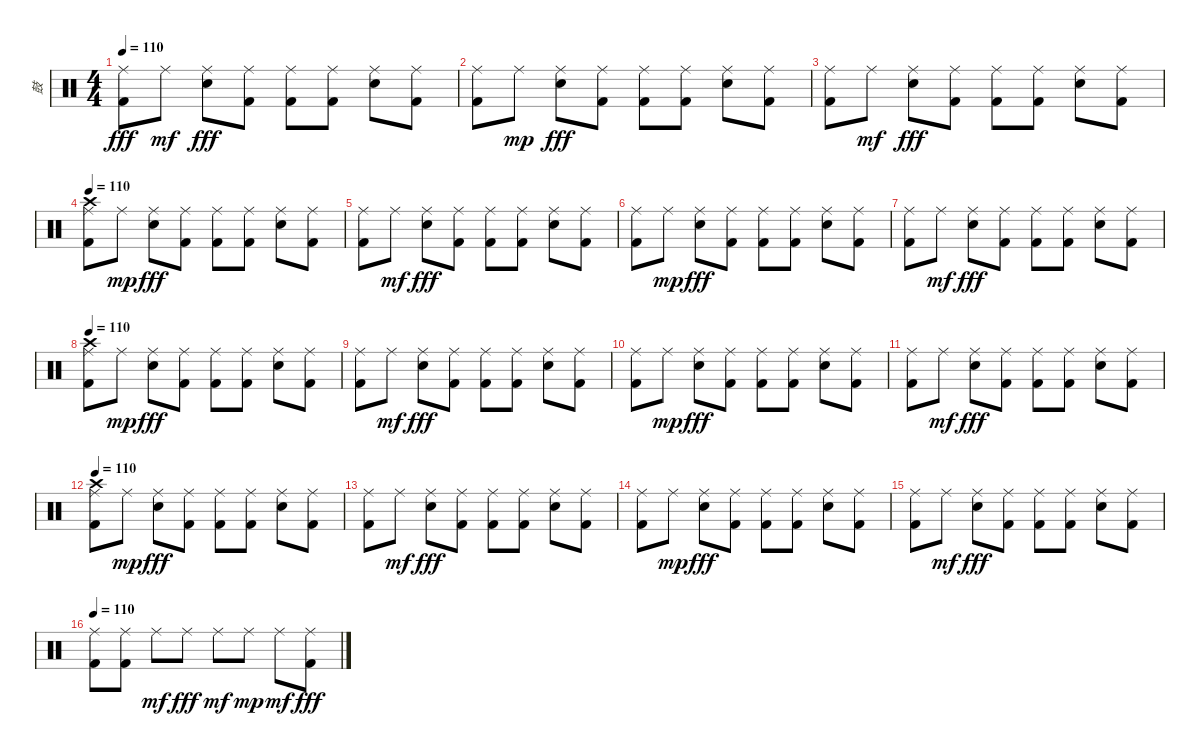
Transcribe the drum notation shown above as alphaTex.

\track ("鼓" "鼓") {instrument percussion}
\staff {score}
\articulation defaults
\ts (4 4)
\tempo 110
\clef neutral
\ks c
("Ride (middle)" "Kick (hit) 2").8{dy fff} "Ride (middle)".8{dy mf} ("Ride (middle)" "Electric Snare (hit)").8{dy fff} ("Ride (middle)" "Kick (hit) 2").8 ("Ride (middle)" "Kick (hit) 2").8 ("Ride (middle)" "Kick (hit) 2").8 ("Ride (middle)" "Electric Snare (hit)").8 ("Ride (middle)" "Kick (hit) 2").8 |
("Ride (middle)" "Kick (hit) 2").8 "Ride (middle)".8{dy mp} ("Ride (middle)" "Electric Snare (hit)").8{dy fff} ("Ride (middle)" "Kick (hit) 2").8 ("Ride (middle)" "Kick (hit) 2").8 ("Ride (middle)" "Kick (hit) 2").8 ("Ride (middle)" "Electric Snare (hit)").8 ("Ride (middle)" "Kick (hit) 2").8 |
("Ride (middle)" "Kick (hit) 2").8 "Ride (middle)".8{dy mf} ("Ride (middle)" "Electric Snare (hit)").8{dy fff} ("Ride (middle)" "Kick (hit) 2").8 ("Ride (middle)" "Kick (hit) 2").8 ("Ride (middle)" "Kick (hit) 2").8 ("Ride (middle)" "Electric Snare (hit)").8 ("Ride (middle)" "Kick (hit) 2").8 |
\tempo 110
("Ride (middle)" "Crash high (hit)" "Kick (hit) 2").8 "Ride (middle)".8{dy mp} ("Ride (middle)" "Electric Snare (hit)").8{dy fff} ("Ride (middle)" "Kick (hit) 2").8 ("Ride (middle)" "Kick (hit) 2").8 ("Ride (middle)" "Kick (hit) 2").8 ("Ride (middle)" "Electric Snare (hit)").8 ("Ride (middle)" "Kick (hit) 2").8 |
("Ride (middle)" "Kick (hit) 2").8 "Ride (middle)".8{dy mf} ("Ride (middle)" "Electric Snare (hit)").8{dy fff} ("Ride (middle)" "Kick (hit) 2").8 ("Ride (middle)" "Kick (hit) 2").8 ("Ride (middle)" "Kick (hit) 2").8 ("Ride (middle)" "Electric Snare (hit)").8 ("Ride (middle)" "Kick (hit) 2").8 |
("Ride (middle)" "Kick (hit) 2").8 "Ride (middle)".8{dy mp} ("Ride (middle)" "Electric Snare (hit)").8{dy fff} ("Ride (middle)" "Kick (hit) 2").8 ("Ride (middle)" "Kick (hit) 2").8 ("Ride (middle)" "Kick (hit) 2").8 ("Ride (middle)" "Electric Snare (hit)").8 ("Ride (middle)" "Kick (hit) 2").8 |
("Ride (middle)" "Kick (hit) 2").8 "Ride (middle)".8{dy mf} ("Ride (middle)" "Electric Snare (hit)").8{dy fff} ("Ride (middle)" "Kick (hit) 2").8 ("Ride (middle)" "Kick (hit) 2").8 ("Ride (middle)" "Kick (hit) 2").8 ("Ride (middle)" "Electric Snare (hit)").8 ("Ride (middle)" "Kick (hit) 2").8 |
\tempo 110
("Ride (middle)" "Crash high (hit)" "Kick (hit) 2").8 "Ride (middle)".8{dy mp} ("Ride (middle)" "Electric Snare (hit)").8{dy fff} ("Ride (middle)" "Kick (hit) 2").8 ("Ride (middle)" "Kick (hit) 2").8 ("Ride (middle)" "Kick (hit) 2").8 ("Ride (middle)" "Electric Snare (hit)").8 ("Ride (middle)" "Kick (hit) 2").8 |
("Ride (middle)" "Kick (hit) 2").8 "Ride (middle)".8{dy mf} ("Ride (middle)" "Electric Snare (hit)").8{dy fff} ("Ride (middle)" "Kick (hit) 2").8 ("Ride (middle)" "Kick (hit) 2").8 ("Ride (middle)" "Kick (hit) 2").8 ("Ride (middle)" "Electric Snare (hit)").8 ("Ride (middle)" "Kick (hit) 2").8 |
("Ride (middle)" "Kick (hit) 2").8 "Ride (middle)".8{dy mp} ("Ride (middle)" "Electric Snare (hit)").8{dy fff} ("Ride (middle)" "Kick (hit) 2").8 ("Ride (middle)" "Kick (hit) 2").8 ("Ride (middle)" "Kick (hit) 2").8 ("Ride (middle)" "Electric Snare (hit)").8 ("Ride (middle)" "Kick (hit) 2").8 |
("Ride (middle)" "Kick (hit) 2").8 "Ride (middle)".8{dy mf} ("Ride (middle)" "Electric Snare (hit)").8{dy fff} ("Ride (middle)" "Kick (hit) 2").8 ("Ride (middle)" "Kick (hit) 2").8 ("Ride (middle)" "Kick (hit) 2").8 ("Ride (middle)" "Electric Snare (hit)").8 ("Ride (middle)" "Kick (hit) 2").8 |
\tempo 110
("Ride (middle)" "Crash high (hit)" "Kick (hit) 2").8 "Ride (middle)".8{dy mp} ("Ride (middle)" "Electric Snare (hit)").8{dy fff} ("Ride (middle)" "Kick (hit) 2").8 ("Ride (middle)" "Kick (hit) 2").8 ("Ride (middle)" "Kick (hit) 2").8 ("Ride (middle)" "Electric Snare (hit)").8 ("Ride (middle)" "Kick (hit) 2").8 |
("Ride (middle)" "Kick (hit) 2").8 "Ride (middle)".8{dy mf} ("Ride (middle)" "Electric Snare (hit)").8{dy fff} ("Ride (middle)" "Kick (hit) 2").8 ("Ride (middle)" "Kick (hit) 2").8 ("Ride (middle)" "Kick (hit) 2").8 ("Ride (middle)" "Electric Snare (hit)").8 ("Ride (middle)" "Kick (hit) 2").8 |
("Ride (middle)" "Kick (hit) 2").8 "Ride (middle)".8{dy mp} ("Ride (middle)" "Electric Snare (hit)").8{dy fff} ("Ride (middle)" "Kick (hit) 2").8 ("Ride (middle)" "Kick (hit) 2").8 ("Ride (middle)" "Kick (hit) 2").8 ("Ride (middle)" "Electric Snare (hit)").8 ("Ride (middle)" "Kick (hit) 2").8 |
("Ride (middle)" "Kick (hit) 2").8 "Ride (middle)".8{dy mf} ("Ride (middle)" "Electric Snare (hit)").8{dy fff} ("Ride (middle)" "Kick (hit) 2").8 ("Ride (middle)" "Kick (hit) 2").8 ("Ride (middle)" "Kick (hit) 2").8 ("Ride (middle)" "Electric Snare (hit)").8 ("Ride (middle)" "Kick (hit) 2").8 |
\tempo 110
("Ride (middle)" "Kick (hit) 2").8{volume 16} ("Ride (middle)" "Kick (hit) 2").8 "Ride (middle)".8{dy mf} "Ride (middle)".8{dy fff} "Ride (middle)".8{dy mf} "Ride (middle)".8{dy mp} "Ride (middle)".8{dy mf} ("Ride (middle)" "Kick (hit) 2").8{dy fff}
